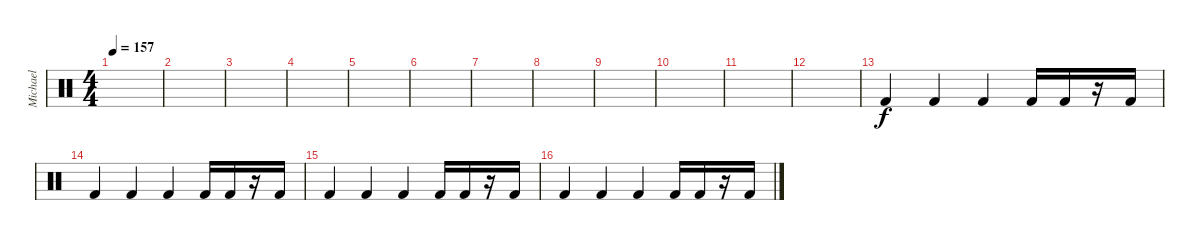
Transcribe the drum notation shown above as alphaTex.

\track ("Michael" "Michael") {instrument percussion}
\staff {score}
\articulation defaults
\ts (4 4)
\tempo 157
\clef neutral
\ks c
|
|
|
|
|
|
|
|
|
|
|
|
"Kick (hit) 2".4 "Kick (hit) 2".4 "Kick (hit) 2".4 "Kick (hit) 2".16 "Kick (hit) 2".16 r.16 "Kick (hit) 2".16 |
"Kick (hit) 2".4 "Kick (hit) 2".4 "Kick (hit) 2".4 "Kick (hit) 2".16 "Kick (hit) 2".16 r.16 "Kick (hit) 2".16 |
"Kick (hit) 2".4 "Kick (hit) 2".4 "Kick (hit) 2".4 "Kick (hit) 2".16 "Kick (hit) 2".16 r.16 "Kick (hit) 2".16 |
"Kick (hit) 2".4 "Kick (hit) 2".4 "Kick (hit) 2".4 "Kick (hit) 2".16 "Kick (hit) 2".16 r.16 "Kick (hit) 2".16
